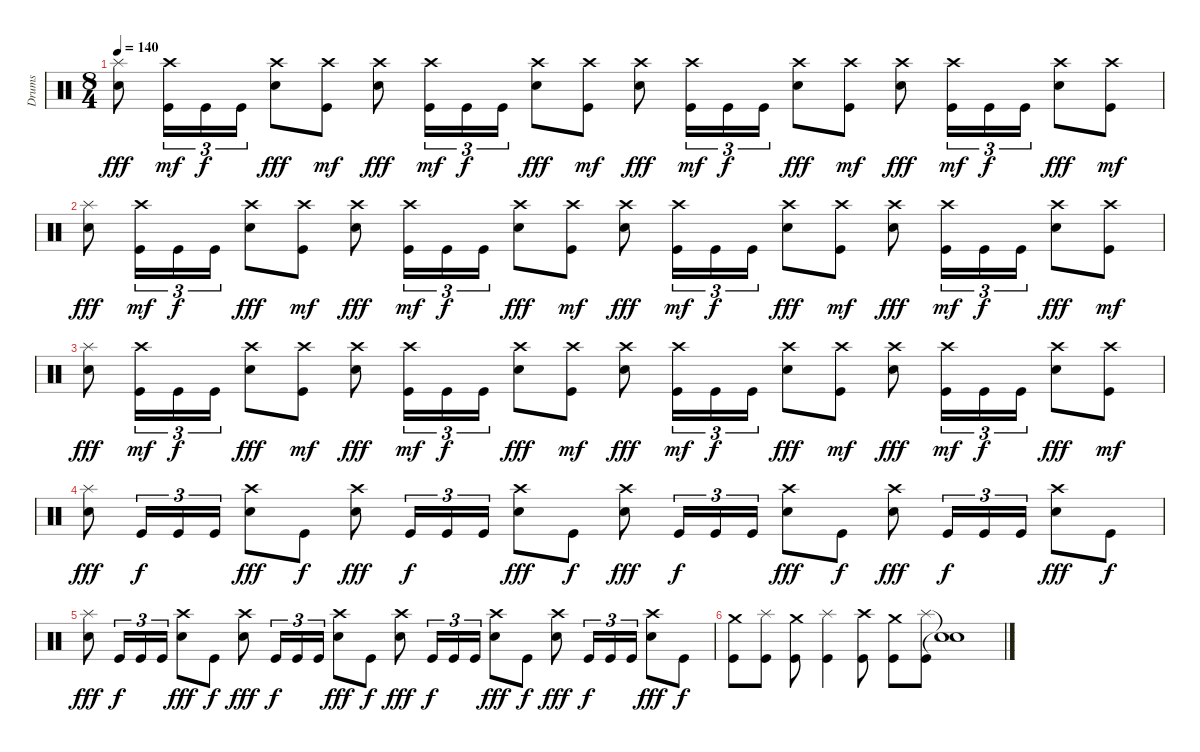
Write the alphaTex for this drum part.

\track ("Drums" "Drums") {instrument percussion}
\staff {score}
\articulation defaults
\ts (8 4)
\tempo 140
\clef neutral
\ks c
("Splash (hit)" "Snare (hit) 2").8{dy fff} ("Crash high (hit)" "Kick (hit)").16{tu (3 2) dy mf} "Kick (hit)".16{tu (3 2) dy f} "Kick (hit)".16{tu (3 2)} ("Crash high (hit)" "Snare (hit) 2").8{dy fff} ("Crash high (hit)" "Kick (hit)").8{dy mf} ("Crash high (hit)" "Snare (hit) 2").8{dy fff} ("Crash high (hit)" "Kick (hit)").16{tu (3 2) dy mf} "Kick (hit)".16{tu (3 2) dy f} "Kick (hit)".16{tu (3 2)} ("Crash high (hit)" "Snare (hit) 2").8{dy fff} ("Crash high (hit)" "Kick (hit)").8{dy mf} ("Crash high (hit)" "Snare (hit) 2").8{dy fff} ("Crash high (hit)" "Kick (hit)").16{tu (3 2) dy mf} "Kick (hit)".16{tu (3 2) dy f} "Kick (hit)".16{tu (3 2)} ("Crash high (hit)" "Snare (hit) 2").8{dy fff} ("Crash high (hit)" "Kick (hit)").8{dy mf} ("Crash high (hit)" "Snare (hit) 2").8{dy fff} ("Crash high (hit)" "Kick (hit)").16{tu (3 2) dy mf} "Kick (hit)".16{tu (3 2) dy f} "Kick (hit)".16{tu (3 2)} ("Crash high (hit)" "Snare (hit) 2").8{dy fff} ("Crash high (hit)" "Kick (hit)").8{dy mf} |
("Splash (hit)" "Snare (hit) 2").8{dy fff} ("Crash high (hit)" "Kick (hit)").16{tu (3 2) dy mf} "Kick (hit)".16{tu (3 2) dy f} "Kick (hit)".16{tu (3 2)} ("Crash high (hit)" "Snare (hit) 2").8{dy fff} ("Crash high (hit)" "Kick (hit)").8{dy mf} ("Crash high (hit)" "Snare (hit) 2").8{dy fff} ("Crash high (hit)" "Kick (hit)").16{tu (3 2) dy mf} "Kick (hit)".16{tu (3 2) dy f} "Kick (hit)".16{tu (3 2)} ("Crash high (hit)" "Snare (hit) 2").8{dy fff} ("Crash high (hit)" "Kick (hit)").8{dy mf} ("Crash high (hit)" "Snare (hit) 2").8{dy fff} ("Crash high (hit)" "Kick (hit)").16{tu (3 2) dy mf} "Kick (hit)".16{tu (3 2) dy f} "Kick (hit)".16{tu (3 2)} ("Crash high (hit)" "Snare (hit) 2").8{dy fff} ("Crash high (hit)" "Kick (hit)").8{dy mf} ("Crash high (hit)" "Snare (hit) 2").8{dy fff} ("Crash high (hit)" "Kick (hit)").16{tu (3 2) dy mf} "Kick (hit)".16{tu (3 2) dy f} "Kick (hit)".16{tu (3 2)} ("Crash high (hit)" "Snare (hit) 2").8{dy fff} ("Crash high (hit)" "Kick (hit)").8{dy mf} |
("Splash (hit)" "Snare (hit) 2").8{dy fff} ("Crash high (hit)" "Kick (hit)").16{tu (3 2) dy mf} "Kick (hit)".16{tu (3 2) dy f} "Kick (hit)".16{tu (3 2)} ("Crash high (hit)" "Snare (hit) 2").8{dy fff} ("Crash high (hit)" "Kick (hit)").8{dy mf} ("Crash high (hit)" "Snare (hit) 2").8{dy fff} ("Crash high (hit)" "Kick (hit)").16{tu (3 2) dy mf} "Kick (hit)".16{tu (3 2) dy f} "Kick (hit)".16{tu (3 2)} ("Crash high (hit)" "Snare (hit) 2").8{dy fff} ("Crash high (hit)" "Kick (hit)").8{dy mf} ("Crash high (hit)" "Snare (hit) 2").8{dy fff} ("Crash high (hit)" "Kick (hit)").16{tu (3 2) dy mf} "Kick (hit)".16{tu (3 2) dy f} "Kick (hit)".16{tu (3 2)} ("Crash high (hit)" "Snare (hit) 2").8{dy fff} ("Crash high (hit)" "Kick (hit)").8{dy mf} ("Crash high (hit)" "Snare (hit) 2").8{dy fff} ("Crash high (hit)" "Kick (hit)").16{tu (3 2) dy mf} "Kick (hit)".16{tu (3 2) dy f} "Kick (hit)".16{tu (3 2)} ("Crash high (hit)" "Snare (hit) 2").8{dy fff} ("Crash high (hit)" "Kick (hit)").8{dy mf} |
("Splash (hit)" "Snare (hit) 2").8{dy fff} "Kick (hit)".16{tu (3 2) dy f} "Kick (hit)".16{tu (3 2)} "Kick (hit)".16{tu (3 2)} ("Crash high (hit)" "Snare (hit) 2").8{dy fff} "Kick (hit)".8{dy f} ("Crash high (hit)" "Snare (hit) 2").8{dy fff} "Kick (hit)".16{tu (3 2) dy f} "Kick (hit)".16{tu (3 2)} "Kick (hit)".16{tu (3 2)} ("Crash high (hit)" "Snare (hit) 2").8{dy fff} "Kick (hit)".8{dy f} ("Crash high (hit)" "Snare (hit) 2").8{dy fff} "Kick (hit)".16{tu (3 2) dy f} "Kick (hit)".16{tu (3 2)} "Kick (hit)".16{tu (3 2)} ("Crash high (hit)" "Snare (hit) 2").8{dy fff} "Kick (hit)".8{dy f} ("Crash high (hit)" "Snare (hit) 2").8{dy fff} "Kick (hit)".16{tu (3 2) dy f} "Kick (hit)".16{tu (3 2)} "Kick (hit)".16{tu (3 2)} ("Crash high (hit)" "Snare (hit) 2").8{dy fff} "Kick (hit)".8{dy f} |
("Splash (hit)" "Snare (hit) 2").8{dy fff} "Kick (hit)".16{tu (3 2) dy f} "Kick (hit)".16{tu (3 2)} "Kick (hit)".16{tu (3 2)} ("Crash high (hit)" "Snare (hit) 2").8{dy fff} "Kick (hit)".8{dy f} ("Crash high (hit)" "Snare (hit) 2").8{dy fff} "Kick (hit)".16{tu (3 2) dy f} "Kick (hit)".16{tu (3 2)} "Kick (hit)".16{tu (3 2)} ("Crash high (hit)" "Snare (hit) 2").8{dy fff} "Kick (hit)".8{dy f} ("Crash high (hit)" "Snare (hit) 2").8{dy fff} "Kick (hit)".16{tu (3 2) dy f} "Kick (hit)".16{tu (3 2)} "Kick (hit)".16{tu (3 2)} ("Crash high (hit)" "Snare (hit) 2").8{dy fff} "Kick (hit)".8{dy f} ("Crash high (hit)" "Snare (hit) 2").8{dy fff} "Kick (hit)".16{tu (3 2) dy f} "Kick (hit)".16{tu (3 2)} "Kick (hit)".16{tu (3 2)} ("Crash high (hit)" "Snare (hit) 2").8{dy fff} "Kick (hit)".8{dy f} |
("Crash medium (hit)" "Kick (hit)").8 ("Splash (hit)" "Kick (hit)").8 ("Crash medium (hit)" "Kick (hit)").8 ("Splash (hit)" "Kick (hit)").4 ("Crash high (hit)" "Kick (hit)").8 ("Crash medium (hit)" "Kick (hit)").8 ("Splash (hit)" "Kick (hit)").8 ("Snare (hit)"{t} "Snare (hit)"{t}).1
